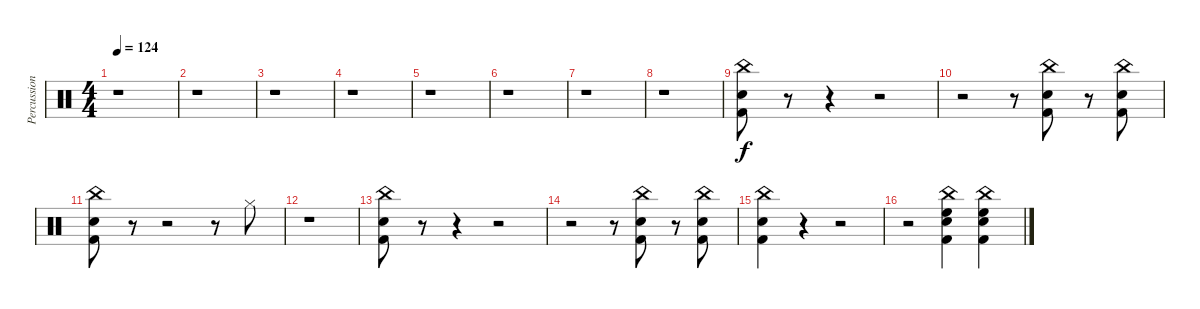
\track ("Percussions" "Percussion") {instrument percussion}
\staff {score}
\articulation defaults
\ts (4 4)
\tempo 124
\clef neutral
\ks c
r.1{dy f} |
r.1 |
r.1 |
r.1 |
r.1 |
r.1 |
r.1 |
r.1 |
("China (hit)" "Snare (hit) 2" "Kick (hit) 2").8 r.8 r.4 r.2 |
r.2 r.8 ("China (hit)" "Snare (hit) 2" "Kick (hit) 2").8 r.8 ("China (hit)" "Snare (hit) 2" "Kick (hit) 2").8 |
("China (hit)" "Snare (hit) 2" "Kick (hit) 2").8 r.8 r.2 r.8 "Hi-Hat (closed)".8 |
r.1 |
("China (hit)" "Snare (hit) 2" "Kick (hit) 2").8 r.8 r.4 r.2 |
r.2 r.8 ("China (hit)" "Snare (hit) 2" "Kick (hit) 2").8 r.8 ("China (hit)" "Snare (hit) 2" "Kick (hit) 2").8 |
("China (hit)" "Snare (hit) 2" "Kick (hit) 2").4 r.4 r.2 |
r.2 ("China (hit)" "High Floor Tom (hit)" "Snare (hit) 2" "Kick (hit) 2").4 ("China (hit)" "High Floor Tom (hit)" "Snare (hit) 2" "Kick (hit) 2").4
